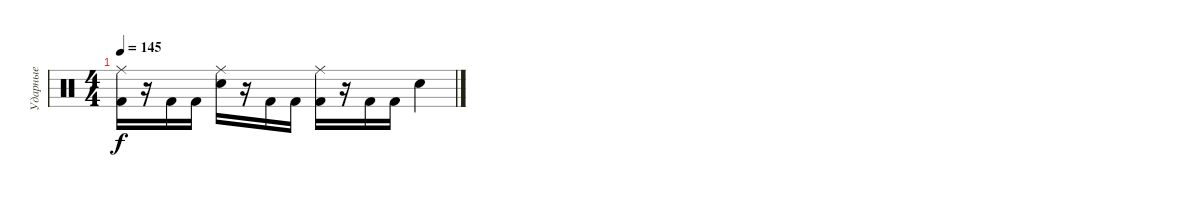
\track ("Ударные" "Ударные") {instrument percussion}
\staff {score}
\articulation defaults
\ts (4 4)
\tempo 145
\clef neutral
\ks c
("Ride (middle)" "Kick (hit) 2").16{dy f} r.16 "Kick (hit) 2".16 "Kick (hit) 2".16 ("Ride (middle)" "Snare (hit) 2").16 r.16 "Kick (hit) 2".16 "Kick (hit) 2".16 ("Ride (middle)" "Kick (hit) 2").16 r.16 "Kick (hit) 2".16 "Kick (hit) 2".16 "Snare (hit) 2".4
